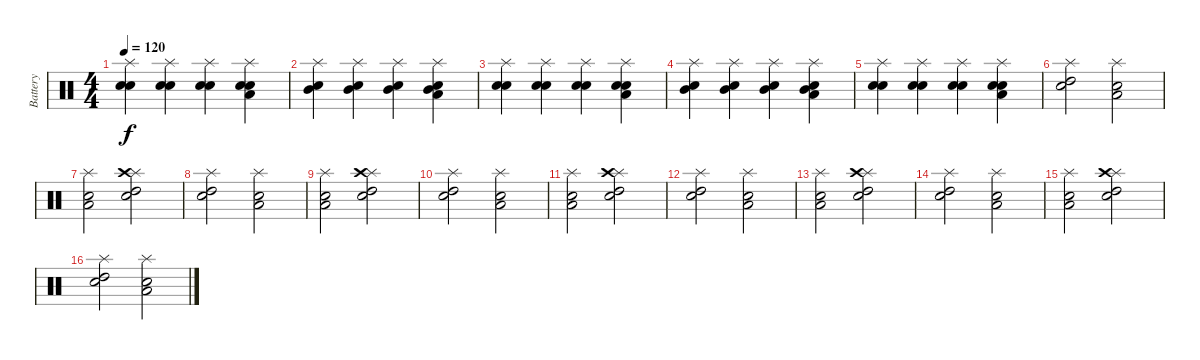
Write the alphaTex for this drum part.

\track ("Battery" "Battery") {instrument percussion}
\staff {score}
\articulation defaults
\ts (4 4)
\tempo 120
\clef neutral
\ks c
("Snare (hit) 2" "Electric Snare (hit)" "Splash (hit)").4{dy f} ("Snare (hit) 2" "Electric Snare (hit)" "Splash (hit)").4 ("Snare (hit) 2" "Electric Snare (hit)" "Splash (hit)").4 ("Snare (hit) 2" "Electric Snare (hit)" "Low Floor Tom (hit)" "Splash (hit)").4 |
("Snare (hit) 2" "Mid Tom (hit)" "Splash (hit)").4 ("Snare (hit) 2" "Mid Tom (hit)" "Splash (hit)").4 ("Snare (hit) 2" "Mid Tom (hit)" "Splash (hit)").4 ("Snare (hit) 2" "Mid Tom (hit)" "Low Floor Tom (hit)" "Splash (hit)").4 |
("Snare (hit) 2" "Electric Snare (hit)" "Splash (hit)").4 ("Snare (hit) 2" "Electric Snare (hit)" "Splash (hit)").4 ("Snare (hit) 2" "Electric Snare (hit)" "Splash (hit)").4 ("Snare (hit) 2" "Electric Snare (hit)" "Low Floor Tom (hit)" "Splash (hit)").4 |
("Snare (hit) 2" "Mid Tom (hit)" "Splash (hit)").4 ("Snare (hit) 2" "Mid Tom (hit)" "Splash (hit)").4 ("Snare (hit) 2" "Mid Tom (hit)" "Splash (hit)").4 ("Snare (hit) 2" "Mid Tom (hit)" "Low Floor Tom (hit)" "Splash (hit)").4 |
("Snare (hit) 2" "Electric Snare (hit)" "Splash (hit)").4 ("Snare (hit) 2" "Electric Snare (hit)" "Splash (hit)").4 ("Snare (hit) 2" "Electric Snare (hit)" "Splash (hit)").4 ("Snare (hit) 2" "Electric Snare (hit)" "Low Floor Tom (hit)" "Splash (hit)").4 |
("Snare (hit) 2" "Splash (hit)" "High Tom (hit)").2 ("Snare (hit) 2" "Splash (hit)" "Low Floor Tom (hit)").2 |
("Snare (hit) 2" "Splash (hit)" "Low Floor Tom (hit)").2 ("Snare (hit) 2" "Splash (hit)" "High Tom (hit)" "Crash high (hit)").2 |
("Snare (hit) 2" "Splash (hit)" "High Tom (hit)").2 ("Snare (hit) 2" "Splash (hit)" "Low Floor Tom (hit)").2 |
("Snare (hit) 2" "Splash (hit)" "Low Floor Tom (hit)").2 ("Snare (hit) 2" "Splash (hit)" "High Tom (hit)" "Crash high (hit)").2 |
("Snare (hit) 2" "Splash (hit)" "High Tom (hit)").2 ("Snare (hit) 2" "Splash (hit)" "Low Floor Tom (hit)").2 |
("Snare (hit) 2" "Splash (hit)" "Low Floor Tom (hit)").2 ("Snare (hit) 2" "Splash (hit)" "High Tom (hit)" "Crash high (hit)").2 |
("Snare (hit) 2" "Splash (hit)" "High Tom (hit)").2 ("Snare (hit) 2" "Splash (hit)" "Low Floor Tom (hit)").2 |
("Snare (hit) 2" "Splash (hit)" "Low Floor Tom (hit)").2 ("Snare (hit) 2" "Splash (hit)" "High Tom (hit)" "Crash high (hit)").2 |
("Snare (hit) 2" "Splash (hit)" "High Tom (hit)").2 ("Snare (hit) 2" "Splash (hit)" "Low Floor Tom (hit)").2 |
("Snare (hit) 2" "Splash (hit)" "Low Floor Tom (hit)").2 ("Snare (hit) 2" "Splash (hit)" "High Tom (hit)" "Crash high (hit)").2 |
("Snare (hit) 2" "Splash (hit)" "High Tom (hit)").2 ("Snare (hit) 2" "Splash (hit)" "Low Floor Tom (hit)").2
